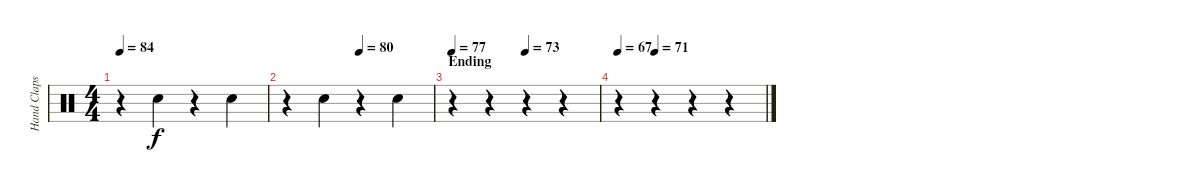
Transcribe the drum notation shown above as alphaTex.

\track ("Hand Claps" "Hand Claps") {instrument percussion}
\staff {score}
\articulation defaults
\ts (4 4)
\tempo 84
\clef neutral
\ks c
r.4{dy f} "Hand Clap (hit)".4 r.4 "Hand Clap (hit)".4 |
\tempo (80 0.5)
r.4 "Hand Clap (hit)".4 r.4 "Hand Clap (hit)".4 |
\section ("" "Ending")
\tempo 77
\tempo (73 0.5)
r.4 r.4 r.4 r.4 |
\tempo 67
\tempo (71 0.25)
r.4 r.4 r.4 r.4
